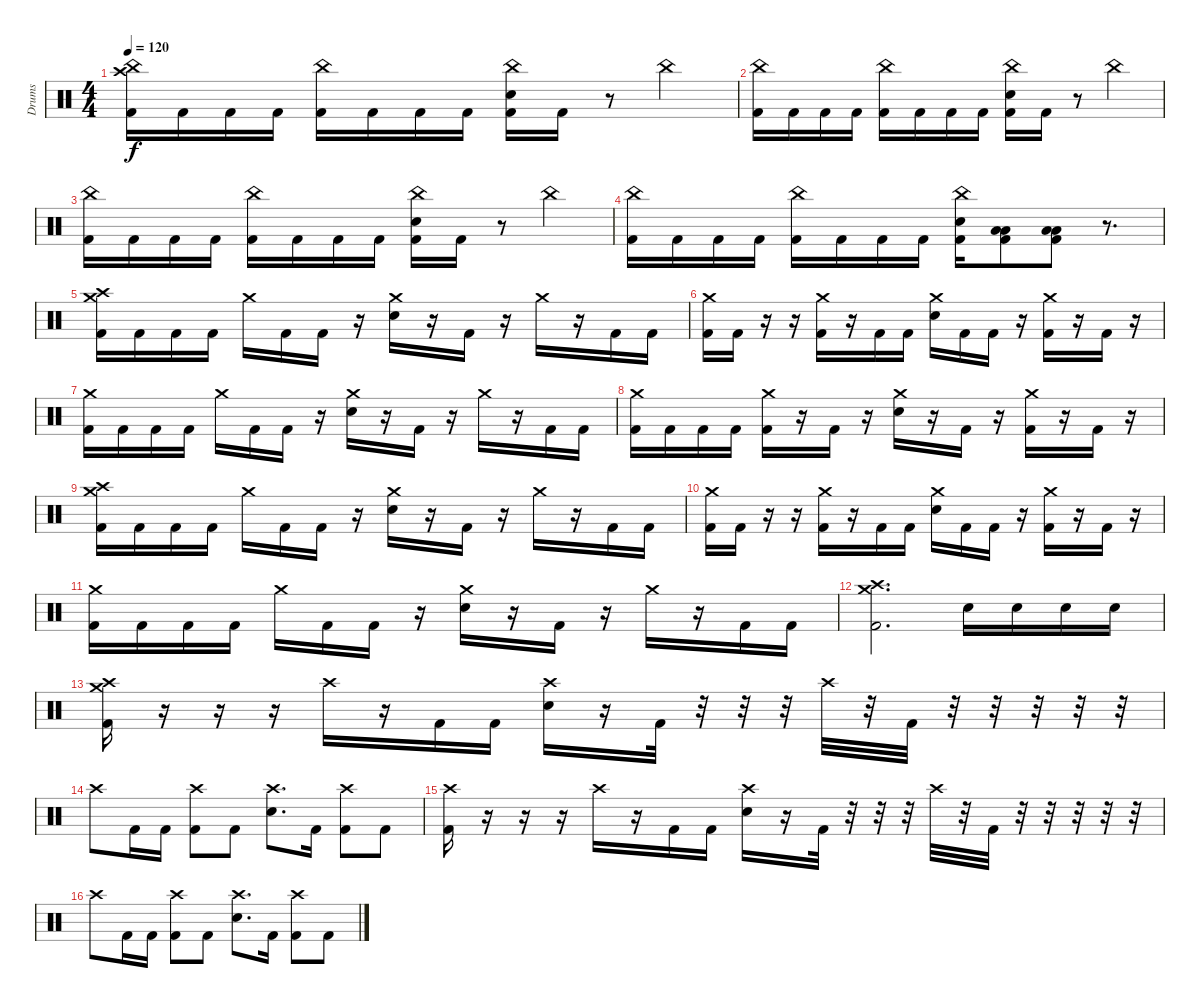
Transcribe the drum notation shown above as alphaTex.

\track ("Drums" "Drums") {instrument percussion}
\staff {score}
\articulation defaults
\ts (4 4)
\tempo 120
\clef neutral
\ks c
("China (hit)" "Crash high (hit)" "Kick (hit) 2").16{dy f} "Kick (hit) 2".16 "Kick (hit) 2".16 "Kick (hit) 2".16 ("China (hit)" "Kick (hit) 2").16 "Kick (hit) 2".16 "Kick (hit) 2".16 "Kick (hit) 2".16 ("China (hit)" "Electric Snare (hit)" "Kick (hit) 2").16 "Kick (hit) 2".16 r.8 "China (hit)".4 |
("China (hit)" "Kick (hit) 2").16 "Kick (hit) 2".16 "Kick (hit) 2".16 "Kick (hit) 2".16 ("China (hit)" "Kick (hit) 2").16 "Kick (hit) 2".16 "Kick (hit) 2".16 "Kick (hit) 2".16 ("China (hit)" "Electric Snare (hit)" "Kick (hit) 2").16 "Kick (hit) 2".16 r.8 "China (hit)".4 |
("China (hit)" "Kick (hit) 2").16 "Kick (hit) 2".16 "Kick (hit) 2".16 "Kick (hit) 2".16 ("China (hit)" "Kick (hit) 2").16 "Kick (hit) 2".16 "Kick (hit) 2".16 "Kick (hit) 2".16 ("China (hit)" "Electric Snare (hit)" "Kick (hit) 2").16 "Kick (hit) 2".16 r.8 "China (hit)".4 |
("China (hit)" "Kick (hit) 2").16 "Kick (hit) 2".16 "Kick (hit) 2".16 "Kick (hit) 2".16 ("China (hit)" "Kick (hit) 2").16 "Kick (hit) 2".16 "Kick (hit) 2".16 "Kick (hit) 2".16 ("China (hit)" "Electric Snare (hit)" "Kick (hit) 2").16 ("Low Floor Tom (hit)" "Low Floor Tom (hit)" "Kick (hit) 2").8 ("Low Floor Tom (hit)" "Low Floor Tom (hit)" "Kick (hit) 2").8 r.8{d} |
("Crash medium (hit)" "Crash high (hit)" "Kick (hit) 2").16 "Kick (hit) 2".16 "Kick (hit) 2".16 "Kick (hit) 2".16 "Crash medium (hit)".16 "Kick (hit) 2".16 "Kick (hit) 2".16 r.16 ("Crash medium (hit)" "Electric Snare (hit)").16 r.16 "Kick (hit) 2".16 r.16 "Crash medium (hit)".16 r.16 "Kick (hit) 2".16 "Kick (hit) 2".16 |
("Crash medium (hit)" "Kick (hit) 2").16 "Kick (hit) 2".16 r.16 r.16 ("Crash medium (hit)" "Kick (hit) 2").16 r.16 "Kick (hit) 2".16 "Kick (hit) 2".16 ("Crash medium (hit)" "Electric Snare (hit)").16 "Kick (hit) 2".16 "Kick (hit) 2".16 r.16 ("Crash medium (hit)" "Kick (hit) 2").16 r.16 "Kick (hit) 2".16 r.16 |
("Crash medium (hit)" "Kick (hit) 2").16 "Kick (hit) 2".16 "Kick (hit) 2".16 "Kick (hit) 2".16 "Crash medium (hit)".16 "Kick (hit) 2".16 "Kick (hit) 2".16 r.16 ("Crash medium (hit)" "Electric Snare (hit)").16 r.16 "Kick (hit) 2".16 r.16 "Crash medium (hit)".16 r.16 "Kick (hit) 2".16 "Kick (hit) 2".16 |
("Crash medium (hit)" "Kick (hit) 2").16 "Kick (hit) 2".16 "Kick (hit) 2".16 "Kick (hit) 2".16 ("Crash medium (hit)" "Kick (hit) 2").16 r.16 "Kick (hit) 2".16 r.16 ("Crash medium (hit)" "Electric Snare (hit)").16 r.16 "Kick (hit) 2".16 r.16 ("Crash medium (hit)" "Kick (hit) 2").16 r.16 "Kick (hit) 2".16 r.16 |
("Crash medium (hit)" "Crash high (hit)" "Kick (hit) 2").16 "Kick (hit) 2".16 "Kick (hit) 2".16 "Kick (hit) 2".16 "Crash medium (hit)".16 "Kick (hit) 2".16 "Kick (hit) 2".16 r.16 ("Crash medium (hit)" "Electric Snare (hit)").16 r.16 "Kick (hit) 2".16 r.16 "Crash medium (hit)".16 r.16 "Kick (hit) 2".16 "Kick (hit) 2".16 |
("Crash medium (hit)" "Kick (hit) 2").16 "Kick (hit) 2".16 r.16 r.16 ("Crash medium (hit)" "Kick (hit) 2").16 r.16 "Kick (hit) 2".16 "Kick (hit) 2".16 ("Crash medium (hit)" "Electric Snare (hit)").16 "Kick (hit) 2".16 "Kick (hit) 2".16 r.16 ("Crash medium (hit)" "Kick (hit) 2").16 r.16 "Kick (hit) 2".16 r.16 |
("Crash medium (hit)" "Kick (hit) 2").16 "Kick (hit) 2".16 "Kick (hit) 2".16 "Kick (hit) 2".16 "Crash medium (hit)".16 "Kick (hit) 2".16 "Kick (hit) 2".16 r.16 ("Crash medium (hit)" "Electric Snare (hit)").16 r.16 "Kick (hit) 2".16 r.16 "Crash medium (hit)".16 r.16 "Kick (hit) 2".16 "Kick (hit) 2".16 |
("Crash high (hit)" "Crash medium (hit)" "Kick (hit) 2").2{d} "Electric Snare (hit)".16 "Electric Snare (hit)".16 "Electric Snare (hit)".16 "Electric Snare (hit)".16 |
("Crash high (hit)" "Crash medium (hit)" "Kick (hit) 2").16 r.16 r.16 r.16 "Crash high (hit)".16 r.16 "Kick (hit) 2".16 "Kick (hit) 2".16 ("Crash high (hit)" "Electric Snare (hit)").16 r.16 "Kick (hit) 2".32 r.32 r.32 r.32 "Crash high (hit)".32 r.32 "Kick (hit) 2".32 r.32 r.32 r.32 r.32 r.32 |
"Crash high (hit)".8 "Kick (hit) 2".16 "Kick (hit) 2".16 ("Crash high (hit)" "Kick (hit) 2").8 "Kick (hit) 2".8 ("Crash high (hit)" "Electric Snare (hit)").8{d} "Kick (hit) 2".16 ("Crash high (hit)" "Kick (hit) 2").8 "Kick (hit) 2".8 |
("Crash high (hit)" "Kick (hit) 2").16 r.16 r.16 r.16 "Crash high (hit)".16 r.16 "Kick (hit) 2".16 "Kick (hit) 2".16 ("Crash high (hit)" "Electric Snare (hit)").16 r.16 "Kick (hit) 2".32 r.32 r.32 r.32 "Crash high (hit)".32 r.32 "Kick (hit) 2".32 r.32 r.32 r.32 r.32 r.32 |
"Crash high (hit)".8 "Kick (hit) 2".16 "Kick (hit) 2".16 ("Crash high (hit)" "Kick (hit) 2").8 "Kick (hit) 2".8 ("Crash high (hit)" "Electric Snare (hit)").8{d} "Kick (hit) 2".16 ("Crash high (hit)" "Kick (hit) 2").8 "Kick (hit) 2".8
